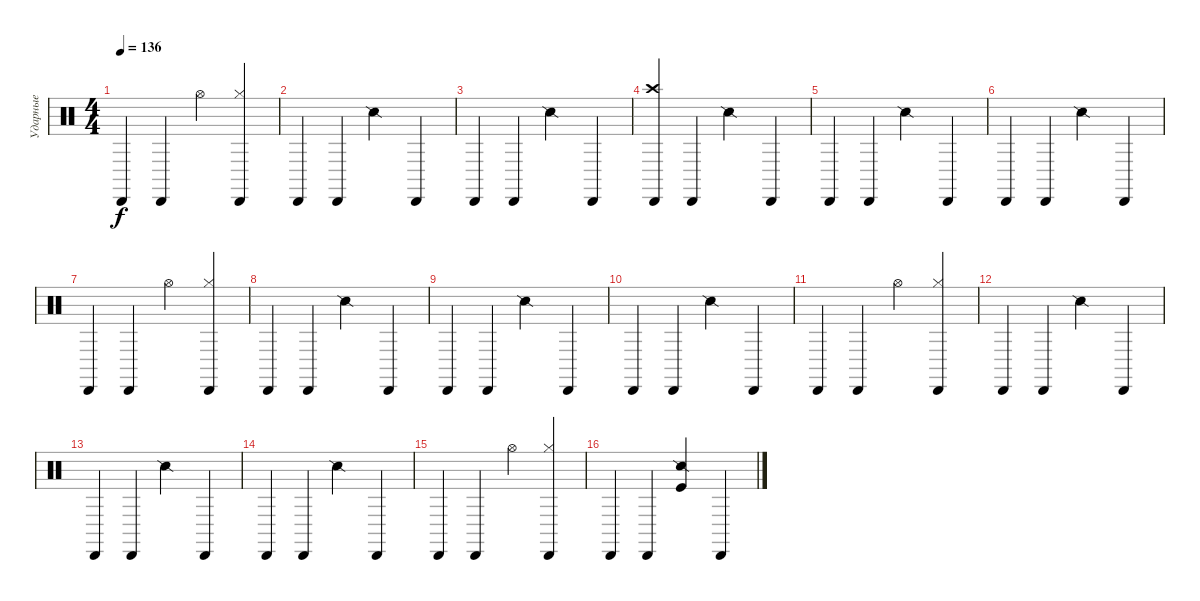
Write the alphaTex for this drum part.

\track ("Ударные" "Ударные") {instrument percussion}
\staff {score}
\articulation defaults
\ts (4 4)
\tempo 136
\clef neutral
\ks c "Cabasa (hit)".4{dy f} "Cabasa (hit)".4 "Hi-Hat (open)".4
("Hi-Hat (closed)" "Cabasa (hit)").4 |
"Cabasa (hit)".4 "Cabasa (hit)".4 "Snare (side stick) 2".4 "Cabasa (hit)".4 |
"Cabasa (hit)".4 "Cabasa (hit)".4 "Snare (side stick) 2".4 "Cabasa (hit)".4 |
("Cabasa (hit)" "Crash high (hit)").4 "Cabasa (hit)".4 "Snare (side stick) 2".4 "Cabasa (hit)".4 |
"Cabasa (hit)".4 "Cabasa (hit)".4 "Snare (side stick) 2".4 "Cabasa (hit)".4 |
"Cabasa (hit)".4 "Cabasa (hit)".4 "Snare (side stick) 2".4 "Cabasa (hit)".4 |
"Cabasa (hit)".4 "Cabasa (hit)".4 "Hi-Hat (open)".4 ("Hi-Hat (closed)" "Cabasa (hit)").4 |
"Cabasa (hit)".4 "Cabasa (hit)".4 "Snare (side stick) 2".4 "Cabasa (hit)".4 |
"Cabasa (hit)".4 "Cabasa (hit)".4 "Snare (side stick) 2".4 "Cabasa (hit)".4 |
"Cabasa (hit)".4 "Cabasa (hit)".4 "Snare (side stick) 2".4 "Cabasa (hit)".4 |
"Cabasa (hit)".4 "Cabasa (hit)".4 "Hi-Hat (open)".4 ("Hi-Hat (closed)" "Cabasa (hit)").4 |
"Cabasa (hit)".4 "Cabasa (hit)".4 "Snare (side stick) 2".4 "Cabasa (hit)".4 |
"Cabasa (hit)".4 "Cabasa (hit)".4 "Snare (side stick) 2".4 "Cabasa (hit)".4 |
"Cabasa (hit)".4 "Cabasa (hit)".4 "Snare (side stick) 2".4 "Cabasa (hit)".4 |
"Cabasa (hit)".4 "Cabasa (hit)".4 "Hi-Hat (open)".4 ("Hi-Hat (closed)" "Cabasa (hit)").4 |
"Cabasa (hit)".4 "Cabasa (hit)".4 ("Snare (side stick) 2" "Kick (hit)").4 "Cabasa (hit)".4
